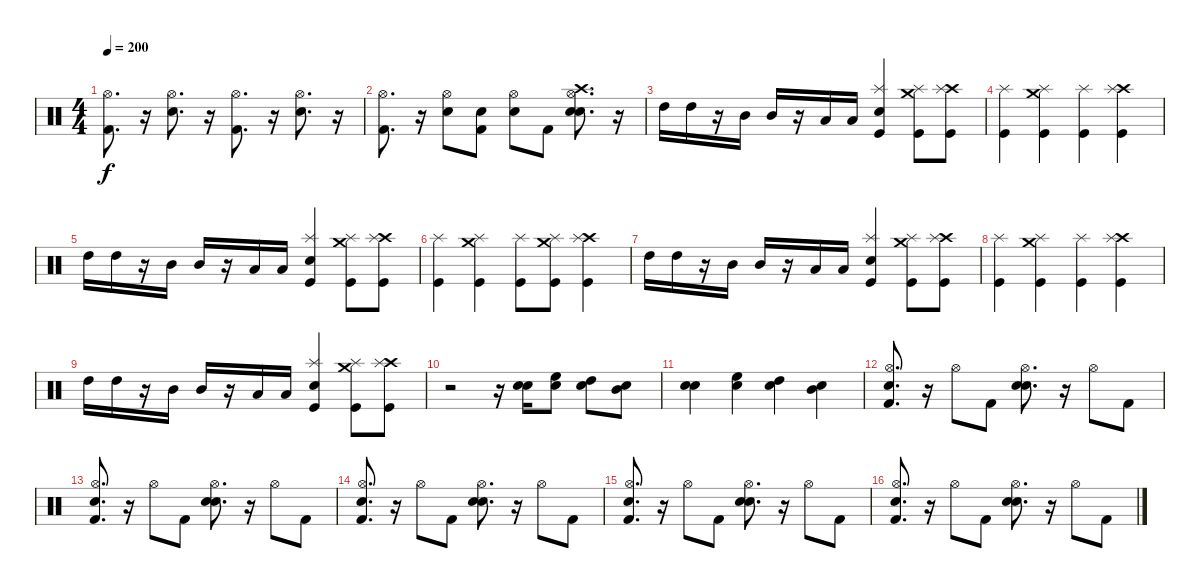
\track "" {instrument percussion}
\staff {score}
\articulation defaults
\ts (4 4)
\tempo 200
\clef neutral
\ks c
("Kick (hit) 2" "Hi-Hat (open)").8{d dy f} r.16 ("Snare (hit) 2" "Hi-Hat (open)").8{d} r.16 ("Kick (hit) 2" "Hi-Hat (open)").8{d} r.16 ("Snare (hit) 2" "Hi-Hat (open)").8{d} r.16 |
("Kick (hit) 2" "Hi-Hat (open)").8{d} r.16 ("Snare (hit) 2" "Hi-Hat (open)").8 ("Snare (hit)" "Kick (hit) 2").8 ("Snare (hit)" "Hi-Hat (open)").8 "Kick (hit) 2".8 ("Snare (hit)" "Snare (hit) 2" "Hi-Hat (open)" "Crash high (hit)").8{d} r.16 |
"High Tom (hit)".16 "High Tom (hit)".16 r.16 "Mid Tom (hit)".16 "Mid Tom (hit)".16 r.16 "Low Tom (hit)".16 "Low Tom (hit)".16 ("Electric Snare (hit)" "Splash (hit)" "Kick (hit)").4 ("Crash medium (hit)" "Splash (hit)" "Kick (hit)").8 ("Crash high (hit)" "Splash (hit)" "Kick (hit)").8 |
("Splash (hit)" "Kick (hit)").4 ("Crash medium (hit)" "Splash (hit)" "Kick (hit)").4 ("Splash (hit)" "Kick (hit)").4 ("Crash high (hit)" "Splash (hit)" "Kick (hit)").4 |
"High Tom (hit)".16 "High Tom (hit)".16 r.16 "Mid Tom (hit)".16 "Mid Tom (hit)".16 r.16 "Low Tom (hit)".16 "Low Tom (hit)".16 ("Electric Snare (hit)" "Splash (hit)" "Kick (hit)").4 ("Crash medium (hit)" "Splash (hit)" "Kick (hit)").8 ("Crash high (hit)" "Splash (hit)" "Kick (hit)").8 |
("Splash (hit)" "Kick (hit)").4 ("Crash medium (hit)" "Splash (hit)" "Kick (hit)").4 ("Splash (hit)" "Kick (hit)").8 ("Crash medium (hit)" "Splash (hit)" "Kick (hit)").8 ("Crash high (hit)" "Splash (hit)" "Kick (hit)").4 |
"High Tom (hit)".16 "High Tom (hit)".16 r.16 "Mid Tom (hit)".16 "Mid Tom (hit)".16 r.16 "Low Tom (hit)".16 "Low Tom (hit)".16 ("Electric Snare (hit)" "Splash (hit)" "Kick (hit)").4 ("Crash medium (hit)" "Splash (hit)" "Kick (hit)").8 ("Crash high (hit)" "Splash (hit)" "Kick (hit)").8 |
("Splash (hit)" "Kick (hit)").4 ("Crash medium (hit)" "Splash (hit)" "Kick (hit)").4 ("Splash (hit)" "Kick (hit)").4 ("Crash high (hit)" "Splash (hit)" "Kick (hit)").4 |
"High Tom (hit)".16 "High Tom (hit)".16 r.16 "Mid Tom (hit)".16 "Mid Tom (hit)".16 r.16 "Low Tom (hit)".16 "Low Tom (hit)".16 ("Electric Snare (hit)" "Splash (hit)" "Kick (hit)").4 ("Crash medium (hit)" "Splash (hit)" "Kick (hit)").8 ("Crash high (hit)" "Splash (hit)" "Kick (hit)").8 |
r.2 r.16 ("Snare (hit)" "Snare (hit) 2").16 ("Snare (hit)" "High Floor Tom (hit)").8 ("Snare (hit)" "High Tom (hit)").8 ("Snare (hit)" "Mid Tom (hit)").8 |
("Snare (hit)" "Snare (hit) 2").4 ("Snare (hit)" "High Floor Tom (hit)").4 ("Snare (hit)" "High Tom (hit)").4 ("Snare (hit)" "Mid Tom (hit)").4 |
("Snare (hit)" "Kick (hit) 2" "Hi-Hat (open)").8{d} r.16 "Hi-Hat (open)".8 "Kick (hit) 2".8 ("Snare (hit)" "Snare (hit) 2" "Hi-Hat (open)").8{d} r.16 "Hi-Hat (open)".8 "Kick (hit) 2".8 |
("Snare (hit)" "Kick (hit) 2" "Hi-Hat (open)").8{d} r.16 "Hi-Hat (open)".8 "Kick (hit) 2".8 ("Snare (hit)" "Snare (hit) 2" "Hi-Hat (open)").8{d} r.16 "Hi-Hat (open)".8 "Kick (hit) 2".8 |
("Snare (hit)" "Kick (hit) 2" "Hi-Hat (open)").8{d} r.16 "Hi-Hat (open)".8 "Kick (hit) 2".8 ("Snare (hit)" "Snare (hit) 2" "Hi-Hat (open)").8{d} r.16 "Hi-Hat (open)".8 "Kick (hit) 2".8 |
("Snare (hit)" "Kick (hit) 2" "Hi-Hat (open)").8{d} r.16 "Hi-Hat (open)".8 "Kick (hit) 2".8 ("Snare (hit)" "Snare (hit) 2" "Hi-Hat (open)").8{d} r.16 "Hi-Hat (open)".8 "Kick (hit) 2".8 |
("Snare (hit)" "Kick (hit) 2" "Hi-Hat (open)").8{d} r.16 "Hi-Hat (open)".8 "Kick (hit) 2".8 ("Snare (hit)" "Snare (hit) 2" "Hi-Hat (open)").8{d} r.16 "Hi-Hat (open)".8 "Kick (hit) 2".8
